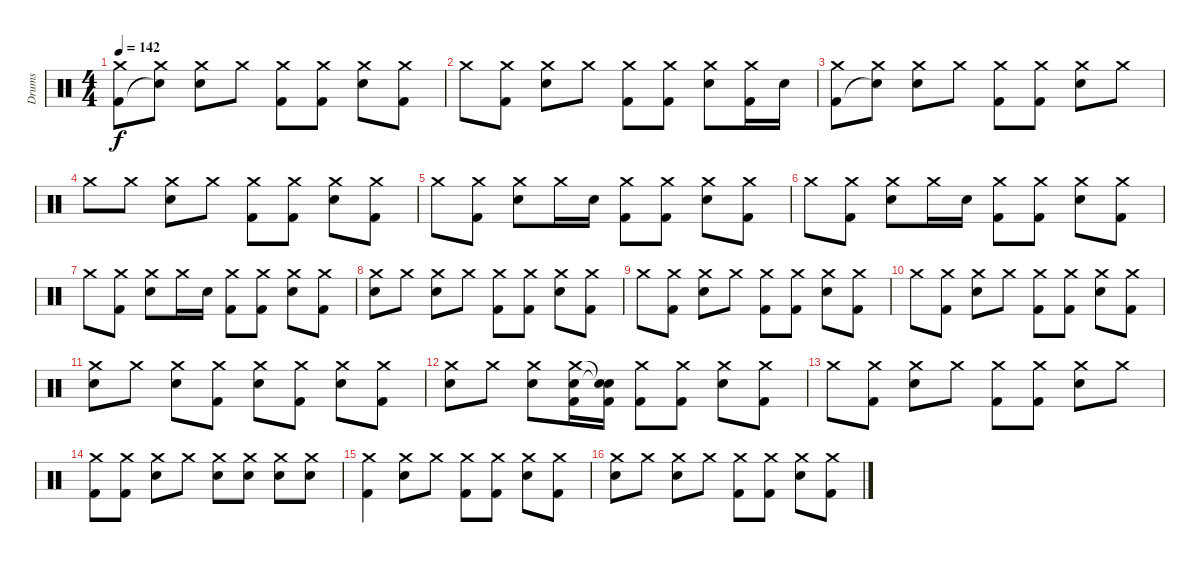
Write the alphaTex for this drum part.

\track ("Drums" "Drums") {instrument percussion}
\staff {score}
\articulation defaults
\ts (4 4)
\tempo 142
\clef neutral
\ks c
("Crash medium (hit)" "Kick (hit) 2").8{dy f} ("Crash medium (hit)" "Snare (hit)"{t}).8 ("Crash medium (hit)" "Snare (hit) 2").8 "Crash medium (hit)".8 ("Crash medium (hit)" "Kick (hit) 2").8 ("Crash medium (hit)" "Kick (hit) 2").8 ("Crash medium (hit)" "Snare (hit) 2").8 ("Crash medium (hit)" "Kick (hit) 2").8 |
"Crash medium (hit)".8 ("Crash medium (hit)" "Kick (hit) 2").8 ("Crash medium (hit)" "Snare (hit) 2").8 "Crash medium (hit)".8 ("Crash medium (hit)" "Kick (hit) 2").8 ("Crash medium (hit)" "Kick (hit) 2").8 ("Crash medium (hit)" "Snare (hit) 2").8 ("Crash medium (hit)" "Kick (hit) 2").16 "Snare (hit) 2".16 |
("Crash medium (hit)" "Kick (hit) 2").8 ("Crash medium (hit)" "Snare (hit)"{t}).8 ("Crash medium (hit)" "Snare (hit) 2").8 "Crash medium (hit)".8 ("Crash medium (hit)" "Kick (hit) 2").8 ("Crash medium (hit)" "Kick (hit) 2").8 ("Crash medium (hit)" "Snare (hit) 2").8 "Crash medium (hit)".8 |
"Crash medium (hit)".8 "Crash medium (hit)".8 ("Crash medium (hit)" "Snare (hit) 2").8 "Crash medium (hit)".8 ("Crash medium (hit)" "Kick (hit) 2").8 ("Crash medium (hit)" "Kick (hit) 2").8 ("Crash medium (hit)" "Snare (hit) 2").8 ("Crash medium (hit)" "Kick (hit) 2").8 |
"Crash medium (hit)".8 ("Crash medium (hit)" "Kick (hit) 2").8 ("Crash medium (hit)" "Snare (hit) 2").8 "Crash medium (hit)".16 "Snare (hit) 2".16 ("Crash medium (hit)" "Kick (hit) 2").8 ("Crash medium (hit)" "Kick (hit) 2").8 ("Crash medium (hit)" "Snare (hit) 2").8 ("Crash medium (hit)" "Kick (hit) 2").8 |
"Crash medium (hit)".8 ("Crash medium (hit)" "Kick (hit) 2").8 ("Crash medium (hit)" "Snare (hit) 2").8 "Crash medium (hit)".16 "Snare (hit) 2".16 ("Crash medium (hit)" "Kick (hit) 2").8 ("Crash medium (hit)" "Kick (hit) 2").8 ("Crash medium (hit)" "Snare (hit) 2").8 ("Crash medium (hit)" "Kick (hit) 2").8 |
"Crash medium (hit)".8 ("Crash medium (hit)" "Kick (hit) 2").8 ("Crash medium (hit)" "Snare (hit) 2").8 "Crash medium (hit)".16 "Snare (hit) 2".16 ("Crash medium (hit)" "Kick (hit) 2").8 ("Crash medium (hit)" "Kick (hit) 2").8 ("Crash medium (hit)" "Snare (hit) 2").8 ("Crash medium (hit)" "Kick (hit) 2").8 |
("Crash medium (hit)" "Snare (hit) 2").8 "Crash medium (hit)".8 ("Crash medium (hit)" "Snare (hit) 2").8 "Crash medium (hit)".8 ("Crash medium (hit)" "Kick (hit) 2").8 ("Crash medium (hit)" "Kick (hit) 2").8 ("Crash medium (hit)" "Snare (hit) 2").8 ("Crash medium (hit)" "Kick (hit) 2").8 |
"Crash medium (hit)".8 ("Crash medium (hit)" "Kick (hit) 2").8 ("Crash medium (hit)" "Snare (hit) 2").8 "Crash medium (hit)".8 ("Crash medium (hit)" "Kick (hit) 2").8 ("Crash medium (hit)" "Kick (hit) 2").8 ("Crash medium (hit)" "Snare (hit) 2").8 ("Crash medium (hit)" "Kick (hit) 2").8 |
"Crash medium (hit)".8 ("Crash medium (hit)" "Kick (hit) 2").8 ("Crash medium (hit)" "Snare (hit) 2").8 "Crash medium (hit)".8 ("Crash medium (hit)" "Kick (hit) 2").8 ("Crash medium (hit)" "Kick (hit) 2").8 ("Crash medium (hit)" "Snare (hit) 2").8 ("Crash medium (hit)" "Kick (hit) 2").8 |
("Crash medium (hit)" "Snare (hit) 2").8 "Crash medium (hit)".8 ("Crash medium (hit)" "Snare (hit) 2").8 ("Crash medium (hit)" "Kick (hit) 2").8 ("Crash medium (hit)" "Snare (hit) 2").8 ("Crash medium (hit)" "Kick (hit) 2").8 ("Crash medium (hit)" "Snare (hit) 2").8 ("Crash medium (hit)" "Kick (hit) 2").8 |
("Crash medium (hit)" "Snare (hit) 2").8 "Crash medium (hit)".8 ("Crash medium (hit)" "Snare (hit) 2").8 ("Crash medium (hit)" "Snare (hit) 2" "Kick (hit) 2").16 ("Snare (hit)"{t} "Snare (hit)"{t} "Kick (hit) 2").16 ("Crash medium (hit)" "Kick (hit) 2").8 ("Crash medium (hit)" "Kick (hit) 2").8 ("Crash medium (hit)" "Snare (hit) 2").8 ("Crash medium (hit)" "Kick (hit) 2").8 |
"Crash medium (hit)".8 ("Crash medium (hit)" "Kick (hit) 2").8 ("Crash medium (hit)" "Snare (hit) 2").8 "Crash medium (hit)".8 ("Crash medium (hit)" "Kick (hit) 2").8 ("Crash medium (hit)" "Kick (hit) 2").8 ("Crash medium (hit)" "Snare (hit) 2").8 "Crash medium (hit)".8 |
("Crash medium (hit)" "Kick (hit) 2").8 ("Crash medium (hit)" "Kick (hit) 2").8 ("Crash medium (hit)" "Snare (hit) 2").8 "Crash medium (hit)".8 ("Crash medium (hit)" "Snare (hit) 2").8 ("Crash medium (hit)" "Snare (hit) 2").8 ("Crash medium (hit)" "Snare (hit) 2").8 ("Crash medium (hit)" "Snare (hit) 2").8 |
("Crash medium (hit)" "Kick (hit) 2").4 ("Crash medium (hit)" "Snare (hit) 2").8 "Crash medium (hit)".8 ("Crash medium (hit)" "Kick (hit) 2").8 ("Crash medium (hit)" "Kick (hit) 2").8 ("Crash medium (hit)" "Snare (hit) 2").8 ("Crash medium (hit)" "Kick (hit) 2").8 |
("Crash medium (hit)" "Snare (hit) 2").8 "Crash medium (hit)".8 ("Crash medium (hit)" "Snare (hit) 2").8 "Crash medium (hit)".8 ("Crash medium (hit)" "Kick (hit) 2").8 ("Crash medium (hit)" "Kick (hit) 2").8 ("Crash medium (hit)" "Snare (hit) 2").8 ("Crash medium (hit)" "Kick (hit) 2").8
